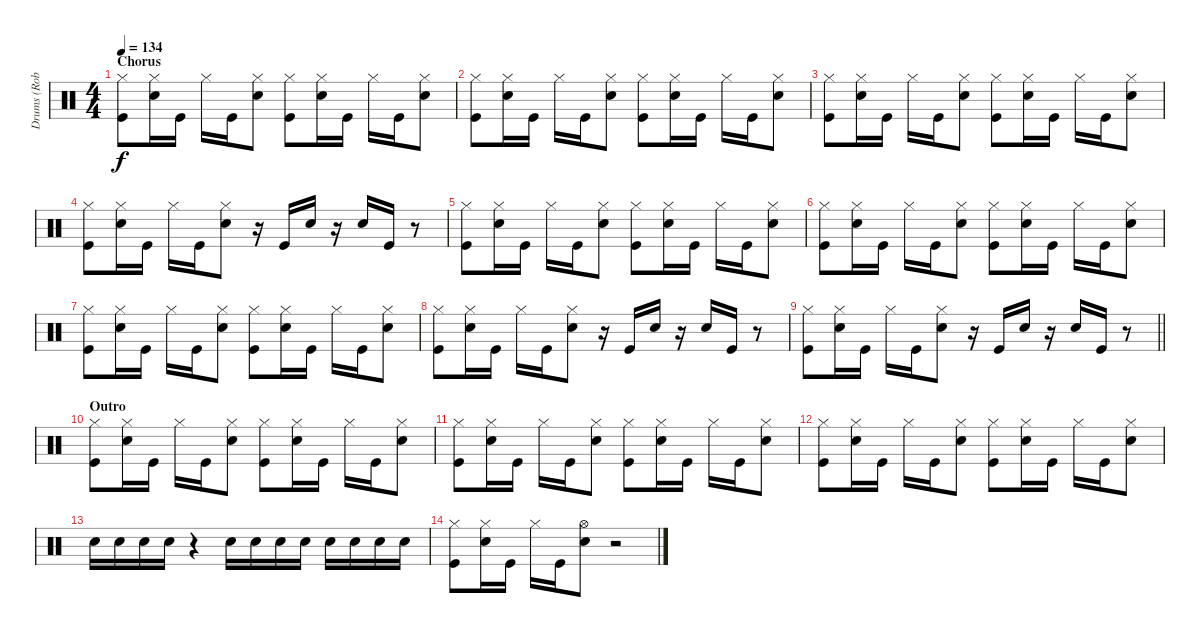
\track ("Drums (Rob Affuso)" "Drums (Rob") {instrument percussion}
\staff {score}
\articulation defaults
\ts (4 4)
\section ("" "Chorus")
\tempo 134
\clef neutral
\ks c
("Hi-Hat (closed)" "Kick (hit)").8{dy f} ("Hi-Hat (closed)" "Snare (hit) 2").16 "Kick (hit)".16 "Hi-Hat (closed)".16 "Kick (hit)".16 ("Hi-Hat (closed)" "Snare (hit) 2").8 ("Hi-Hat (closed)" "Kick (hit)").8 ("Hi-Hat (closed)" "Snare (hit) 2").16 "Kick (hit)".16 "Hi-Hat (closed)".16 "Kick (hit)".16 ("Hi-Hat (closed)" "Snare (hit) 2").8 |
("Hi-Hat (closed)" "Kick (hit)").8 ("Hi-Hat (closed)" "Snare (hit) 2").16 "Kick (hit)".16 "Hi-Hat (closed)".16 "Kick (hit)".16 ("Hi-Hat (closed)" "Snare (hit) 2").8 ("Hi-Hat (closed)" "Kick (hit)").8 ("Hi-Hat (closed)" "Snare (hit) 2").16 "Kick (hit)".16 "Hi-Hat (closed)".16 "Kick (hit)".16 ("Hi-Hat (closed)" "Snare (hit) 2").8 |
("Hi-Hat (closed)" "Kick (hit)").8 ("Hi-Hat (closed)" "Snare (hit) 2").16 "Kick (hit)".16 "Hi-Hat (closed)".16 "Kick (hit)".16 ("Hi-Hat (closed)" "Snare (hit) 2").8 ("Hi-Hat (closed)" "Kick (hit)").8 ("Hi-Hat (closed)" "Snare (hit) 2").16 "Kick (hit)".16 "Hi-Hat (closed)".16 "Kick (hit)".16 ("Hi-Hat (closed)" "Snare (hit) 2").8 |
("Hi-Hat (closed)" "Kick (hit)").8 ("Hi-Hat (closed)" "Snare (hit) 2").16 "Kick (hit)".16 "Hi-Hat (closed)".16 "Kick (hit)".16 ("Hi-Hat (closed)" "Snare (hit) 2").8 r.16 "Kick (hit)".16 "Snare (hit) 2".16 r.16 "Snare (hit) 2".16 "Kick (hit)".16 r.8 |
("Hi-Hat (closed)" "Kick (hit)").8 ("Hi-Hat (closed)" "Snare (hit) 2").16 "Kick (hit)".16 "Hi-Hat (closed)".16 "Kick (hit)".16 ("Hi-Hat (closed)" "Snare (hit) 2").8 ("Hi-Hat (closed)" "Kick (hit)").8 ("Hi-Hat (closed)" "Snare (hit) 2").16 "Kick (hit)".16 "Hi-Hat (closed)".16 "Kick (hit)".16 ("Hi-Hat (closed)" "Snare (hit) 2").8 |
("Hi-Hat (closed)" "Kick (hit)").8 ("Hi-Hat (closed)" "Snare (hit) 2").16 "Kick (hit)".16 "Hi-Hat (closed)".16 "Kick (hit)".16 ("Hi-Hat (closed)" "Snare (hit) 2").8 ("Hi-Hat (closed)" "Kick (hit)").8 ("Hi-Hat (closed)" "Snare (hit) 2").16 "Kick (hit)".16 "Hi-Hat (closed)".16 "Kick (hit)".16 ("Hi-Hat (closed)" "Snare (hit) 2").8 |
("Hi-Hat (closed)" "Kick (hit)").8 ("Hi-Hat (closed)" "Snare (hit) 2").16 "Kick (hit)".16 "Hi-Hat (closed)".16 "Kick (hit)".16 ("Hi-Hat (closed)" "Snare (hit) 2").8 ("Hi-Hat (closed)" "Kick (hit)").8 ("Hi-Hat (closed)" "Snare (hit) 2").16 "Kick (hit)".16 "Hi-Hat (closed)".16 "Kick (hit)".16 ("Hi-Hat (closed)" "Snare (hit) 2").8 |
("Hi-Hat (closed)" "Kick (hit)").8 ("Hi-Hat (closed)" "Snare (hit) 2").16 "Kick (hit)".16 "Hi-Hat (closed)".16 "Kick (hit)".16 ("Hi-Hat (closed)" "Snare (hit) 2").8 r.16 "Kick (hit)".16 "Snare (hit) 2".16 r.16 "Snare (hit) 2".16 "Kick (hit)".16 r.8 |
\barLineRight lightlight
("Hi-Hat (closed)" "Kick (hit)").8 ("Hi-Hat (closed)" "Snare (hit) 2").16 "Kick (hit)".16 "Hi-Hat (closed)".16 "Kick (hit)".16 ("Hi-Hat (closed)" "Snare (hit) 2").8 r.16 "Kick (hit)".16 "Snare (hit) 2".16 r.16 "Snare (hit) 2".16 "Kick (hit)".16 r.8 |
\section ("" "Outro")
("Hi-Hat (closed)" "Kick (hit)").8 ("Hi-Hat (closed)" "Snare (hit) 2").16 "Kick (hit)".16 "Hi-Hat (closed)".16 "Kick (hit)".16 ("Hi-Hat (closed)" "Snare (hit) 2").8 ("Hi-Hat (closed)" "Kick (hit)").8 ("Hi-Hat (closed)" "Snare (hit) 2").16 "Kick (hit)".16 "Hi-Hat (closed)".16 "Kick (hit)".16 ("Hi-Hat (closed)" "Snare (hit) 2").8 |
("Hi-Hat (closed)" "Kick (hit)").8 ("Hi-Hat (closed)" "Snare (hit) 2").16 "Kick (hit)".16 "Hi-Hat (closed)".16 "Kick (hit)".16 ("Hi-Hat (closed)" "Snare (hit) 2").8 ("Hi-Hat (closed)" "Kick (hit)").8 ("Hi-Hat (closed)" "Snare (hit) 2").16 "Kick (hit)".16 "Hi-Hat (closed)".16 "Kick (hit)".16 ("Hi-Hat (closed)" "Snare (hit) 2").8 |
("Hi-Hat (closed)" "Kick (hit)").8 ("Hi-Hat (closed)" "Snare (hit) 2").16 "Kick (hit)".16 "Hi-Hat (closed)".16 "Kick (hit)".16 ("Hi-Hat (closed)" "Snare (hit) 2").8 ("Hi-Hat (closed)" "Kick (hit)").8 ("Hi-Hat (closed)" "Snare (hit) 2").16 "Kick (hit)".16 "Hi-Hat (closed)".16 "Kick (hit)".16 ("Hi-Hat (closed)" "Snare (hit) 2").8 |
"Snare (hit) 2".16 "Snare (hit) 2".16 "Snare (hit) 2".16 "Snare (hit) 2".16 r.4 "Snare (hit) 2".16 "Snare (hit) 2".16 "Snare (hit) 2".16 "Snare (hit) 2".16 "Snare (hit) 2".16 "Snare (hit) 2".16 "Snare (hit) 2".16 "Snare (hit) 2".16 |
("Hi-Hat (closed)" "Kick (hit)").8 ("Hi-Hat (closed)" "Snare (hit) 2").16 "Kick (hit)".16 "Hi-Hat (closed)".16 "Kick (hit)".16 ("Hi-Hat (open)" "Snare (hit) 2").8 r.2
